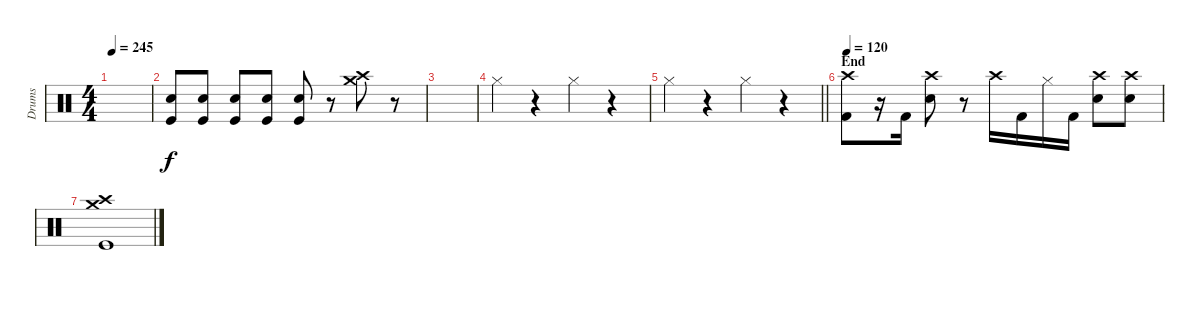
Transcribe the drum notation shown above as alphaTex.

\track ("Drums" "Drums") {instrument percussion}
\staff {score}
\articulation defaults
\ts (4 4)
\tempo 245
\clef neutral
\ks c
|
("Electric Snare (hit)" "Kick (hit)").8 ("Electric Snare (hit)" "Kick (hit)").8 ("Electric Snare (hit)" "Kick (hit)").8 ("Electric Snare (hit)" "Kick (hit)").8 ("Electric Snare (hit)" "Kick (hit)").8 r.8 ("Crash high (hit)" "Crash medium (hit)").8 r.8 |
|
"Hi-Hat (closed)".4 r.4 "Hi-Hat (closed)".4 r.4 |
\barLineRight lightlight "Hi-Hat (closed)".4
r.4 "Hi-Hat (closed)".4 r.4 |
\section ("" "End")
\tempo 120
("Crash high (hit)" "Kick (hit) 2").8 r.16 "Kick (hit) 2".16 ("Crash high (hit)" "Snare (hit) 2").8 r.8 "Crash high (hit)".16 "Kick (hit) 2".16 "Hi-Hat (closed)".16 "Kick (hit) 2".16 ("Crash high (hit)" "Snare (hit) 2").8 ("Crash high (hit)" "Snare (hit) 2").8 |
("Crash high (hit)" "Crash medium (hit)" "Kick (hit)").1
